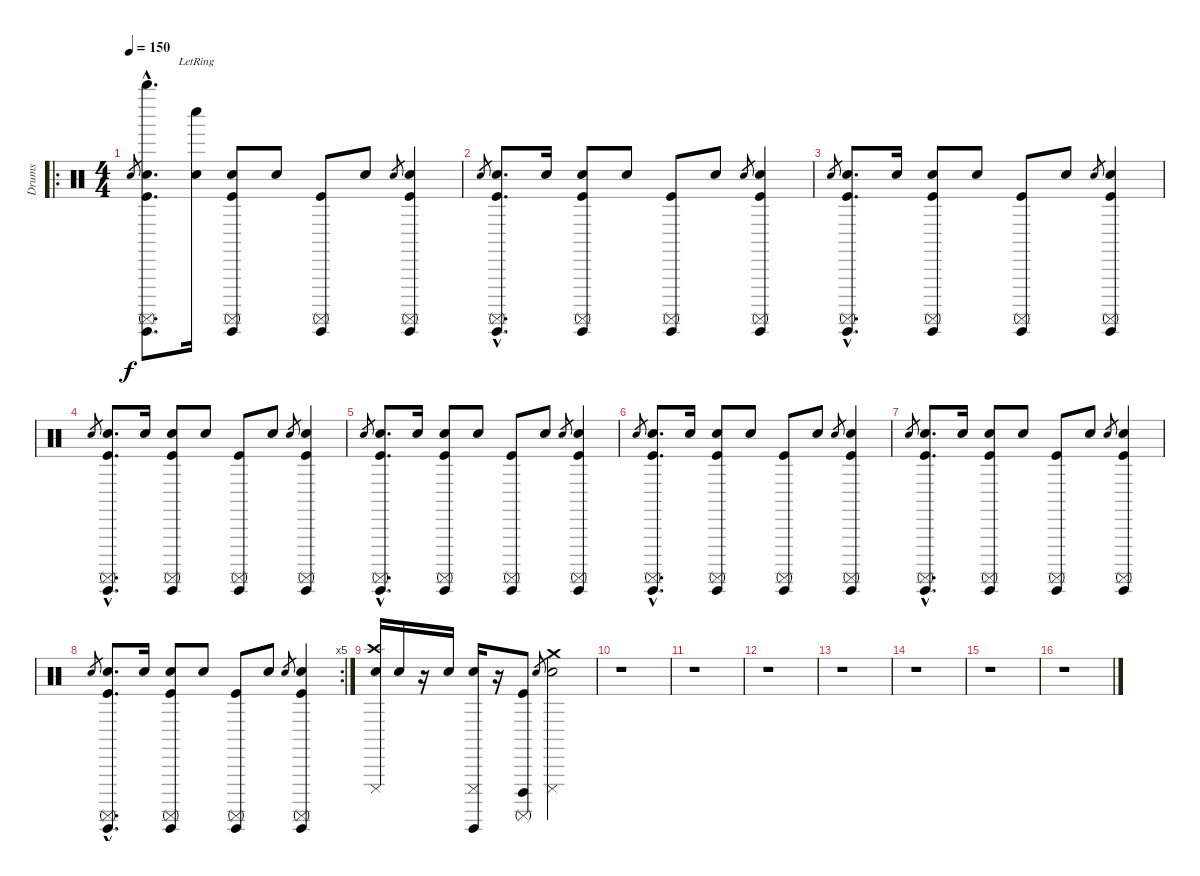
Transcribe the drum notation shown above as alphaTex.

\track ("Drums" "Drums") {instrument percussion}
\staff {score}
\articulation defaults
\ro
\ts (4 4)
\tempo 150
\clef neutral
\ks c "Electric Snare (hit)".8{gr dy f}
("Guiro (hit)"{hac} "Electric Snare (hit)"{hac} "Whistle high (hit)"{hac} "Surdo (mute)"{hac} "Kick (hit)"{hac}).8{d} ("Electric Snare (hit)" "Whistle low (hit)"{lr}).16 ("Guiro (hit)" "Electric Snare (hit)" "Surdo (mute)" "Kick (hit)").8 "Electric Snare (hit)".8 ("Guiro (hit)" "Surdo (mute)" "Kick (hit)").8 "Electric Snare (hit)".8 "Electric Snare (hit)".8{gr} ("Guiro (hit)" "Electric Snare (hit)" "Surdo (mute)" "Kick (hit)").4 |
"Electric Snare (hit)".8{gr} ("Guiro (hit)"{hac} "Electric Snare (hit)"{hac} "Surdo (mute)"{hac} "Kick (hit)"{hac}).8{d} "Electric Snare (hit)".16 ("Guiro (hit)" "Electric Snare (hit)" "Surdo (mute)" "Kick (hit)").8 "Electric Snare (hit)".8 ("Guiro (hit)" "Surdo (mute)" "Kick (hit)").8 "Electric Snare (hit)".8 "Electric Snare (hit)".8{gr} ("Guiro (hit)" "Electric Snare (hit)" "Surdo (mute)" "Kick (hit)").4 |
"Electric Snare (hit)".8{gr} ("Guiro (hit)"{hac} "Electric Snare (hit)"{hac} "Surdo (mute)"{hac} "Kick (hit)"{hac}).8{d} "Electric Snare (hit)".16 ("Guiro (hit)" "Electric Snare (hit)" "Surdo (mute)" "Kick (hit)").8 "Electric Snare (hit)".8 ("Guiro (hit)" "Surdo (mute)" "Kick (hit)").8 "Electric Snare (hit)".8 "Electric Snare (hit)".8{gr} ("Guiro (hit)" "Electric Snare (hit)" "Surdo (mute)" "Kick (hit)").4 |
"Electric Snare (hit)".8{gr} ("Guiro (hit)"{hac} "Electric Snare (hit)"{hac} "Surdo (mute)"{hac} "Kick (hit)"{hac}).8{d} "Electric Snare (hit)".16 ("Guiro (hit)" "Electric Snare (hit)" "Surdo (mute)" "Kick (hit)").8 "Electric Snare (hit)".8 ("Guiro (hit)" "Surdo (mute)" "Kick (hit)").8 "Electric Snare (hit)".8 "Electric Snare (hit)".8{gr} ("Guiro (hit)" "Electric Snare (hit)" "Surdo (mute)" "Kick (hit)").4 |
"Electric Snare (hit)".8{gr} ("Guiro (hit)"{hac} "Electric Snare (hit)"{hac} "Surdo (mute)"{hac} "Kick (hit)"{hac}).8{d} "Electric Snare (hit)".16 ("Guiro (hit)" "Electric Snare (hit)" "Surdo (mute)" "Kick (hit)").8 "Electric Snare (hit)".8 ("Guiro (hit)" "Surdo (mute)" "Kick (hit)").8 "Electric Snare (hit)".8 "Electric Snare (hit)".8{gr} ("Guiro (hit)" "Electric Snare (hit)" "Surdo (mute)" "Kick (hit)").4 |
"Electric Snare (hit)".8{gr} ("Guiro (hit)"{hac} "Electric Snare (hit)"{hac} "Surdo (mute)"{hac} "Kick (hit)"{hac}).8{d} "Electric Snare (hit)".16 ("Guiro (hit)" "Electric Snare (hit)" "Surdo (mute)" "Kick (hit)").8 "Electric Snare (hit)".8 ("Guiro (hit)" "Surdo (mute)" "Kick (hit)").8 "Electric Snare (hit)".8 "Electric Snare (hit)".8{gr} ("Guiro (hit)" "Electric Snare (hit)" "Surdo (mute)" "Kick (hit)").4 |
"Electric Snare (hit)".8{gr} ("Guiro (hit)"{hac} "Electric Snare (hit)"{hac} "Surdo (mute)"{hac} "Kick (hit)"{hac}).8{d} "Electric Snare (hit)".16 ("Guiro (hit)" "Electric Snare (hit)" "Surdo (mute)" "Kick (hit)").8 "Electric Snare (hit)".8 ("Guiro (hit)" "Surdo (mute)" "Kick (hit)").8 "Electric Snare (hit)".8 "Electric Snare (hit)".8{gr} ("Guiro (hit)" "Electric Snare (hit)" "Surdo (mute)" "Kick (hit)").4 |
\rc 5 "Electric Snare (hit)".8{gr}
("Guiro (hit)"{hac} "Electric Snare (hit)"{hac} "Surdo (mute)"{hac} "Kick (hit)"{hac}).8{d} "Electric Snare (hit)".16 ("Guiro (hit)" "Electric Snare (hit)" "Surdo (mute)" "Kick (hit)").8 "Electric Snare (hit)".8 ("Guiro (hit)" "Surdo (mute)" "Kick (hit)").8 "Electric Snare (hit)".8 "Electric Snare (hit)".8{gr} ("Guiro (hit)" "Electric Snare (hit)" "Surdo (mute)" "Kick (hit)").4 |
("Crash high (hit)" "Electric Snare (hit)" "Cuica (mute)").16 "Electric Snare (hit)".16 r.16 "Electric Snare (hit)".16 ("Guiro (hit)" "Electric Snare (hit)" "Cuica (mute)").16 r.16 ("Cuica (open)" "Surdo (mute)" "Kick (hit)").8 "Electric Snare (hit)".8{gr} ("Crash medium (hit)" "Electric Snare (hit)" "Cuica (mute)").2 |
r.1 |
r.1 |
r.1 |
r.1 |
r.1 |
r.1 |
r.1
